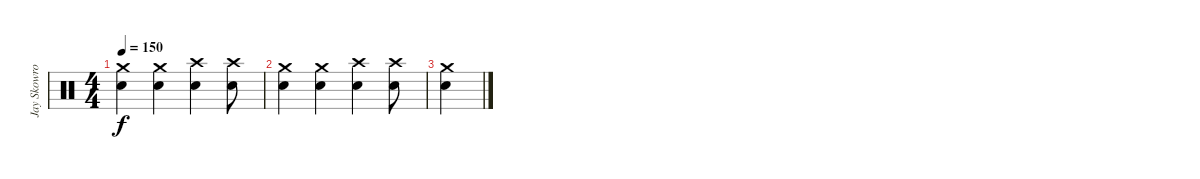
\track ("Jay Skowronek (Drums)" "Jay Skowro") {instrument percussion}
\staff {score}
\articulation defaults
\ts (4 4)
\tempo 150
\clef neutral
\ks c
("Electric Snare (hit)" "Crash medium (hit)").4{dy f} ("Electric Snare (hit)" "Crash medium (hit)").4 ("Electric Snare (hit)" "Crash high (hit)").4 ("Electric Snare (hit)" "Crash high (hit)").8 |
("Electric Snare (hit)" "Crash medium (hit)").4 ("Electric Snare (hit)" "Crash medium (hit)").4 ("Electric Snare (hit)" "Crash high (hit)").4 ("Electric Snare (hit)" "Crash high (hit)").8 |
("Electric Snare (hit)" "Crash medium (hit)").4
